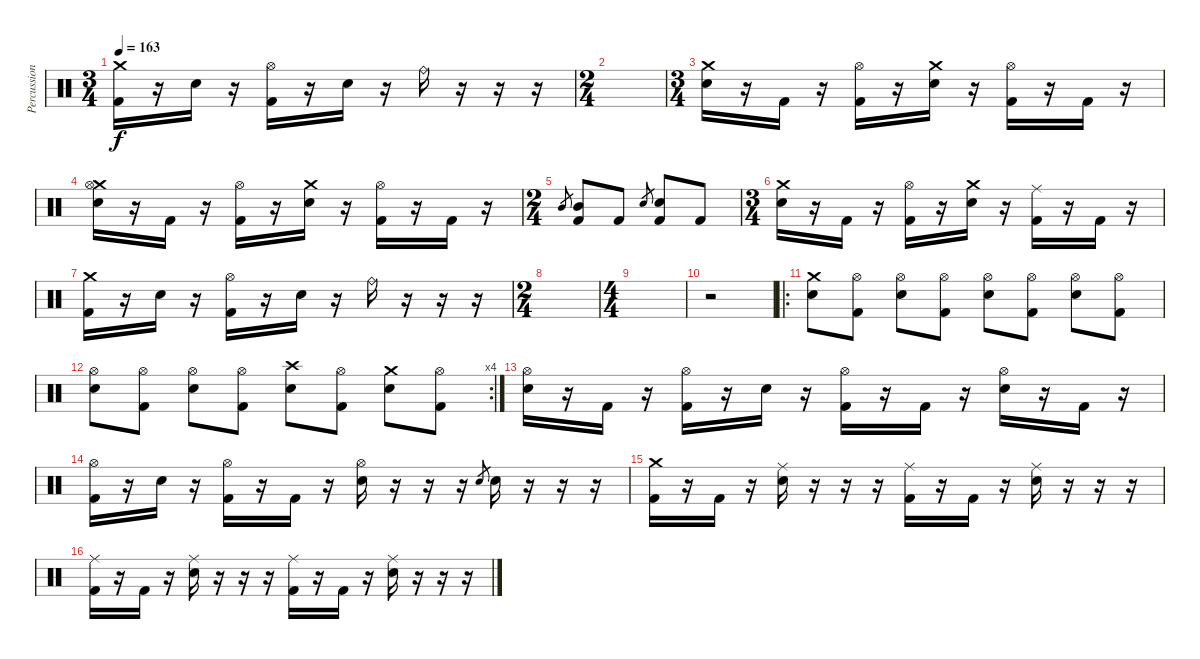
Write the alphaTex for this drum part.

\track ("Percussion" "Percussion") {instrument percussion}
\staff {score}
\articulation defaults
\ts (3 4)
\tempo 163
\clef neutral
\ks c
("Crash medium (hit)" "Kick (hit) 2").16{dy f} r.16 "Snare (hit) 2".16 r.16 ("Hi-Hat (open)" "Kick (hit) 2").16 r.16 "Snare (hit) 2".16 r.16 "Ride (bell)".16 r.16 r.16 r.16 |
\ts (2 4)
|
\ts (3 4)
("Crash medium (hit)" "Snare (hit) 2").16 r.16 "Kick (hit) 2".16 r.16 ("Hi-Hat (open)" "Kick (hit) 2").16 r.16 ("Crash medium (hit)" "Snare (hit) 2").16 r.16 ("Hi-Hat (open)" "Kick (hit) 2").16 r.16 "Kick (hit) 2".16 r.16 |
("Crash medium (hit)" "Hi-Hat (open)" "Snare (hit) 2").16 r.16 "Kick (hit) 2".16 r.16 ("Hi-Hat (open)" "Kick (hit) 2").16 r.16 ("Crash medium (hit)" "Snare (hit) 2").16 r.16 ("Hi-Hat (open)" "Kick (hit) 2").16 r.16 "Kick (hit) 2".16 r.16 |
\ts (2 4)
"Mid Tom (hit)".8{gr} ("Mid Tom (hit)" "Kick (hit) 2").8 "Kick (hit) 2".8 "Snare (hit) 2".8{gr} ("Snare (hit) 2" "Kick (hit) 2").8 "Kick (hit) 2".8 |
\ts (3 4)
("Crash medium (hit)" "Snare (hit) 2").16 r.16 "Kick (hit) 2".16 r.16 ("Hi-Hat (open)" "Kick (hit) 2").16 r.16 ("Crash medium (hit)" "Snare (hit) 2").16 r.16 ("Ride (middle)" "Kick (hit) 2").16 r.16 "Kick (hit) 2".16 r.16 |
("Crash medium (hit)" "Kick (hit) 2").16 r.16 "Snare (hit) 2".16 r.16 ("Hi-Hat (open)" "Kick (hit) 2").16 r.16 "Snare (hit) 2".16 r.16 "Ride (bell)".16 r.16 r.16 r.16 |
\ts (2 4)
|
\ts (4 4)
|
r.2{volume 13} |
\ro
("Crash medium (hit)" "Snare (hit) 2").8 ("Hi-Hat (open)" "Kick (hit) 2").8 ("Hi-Hat (open)" "Snare (hit) 2").8 ("Hi-Hat (open)" "Kick (hit) 2").8 ("Hi-Hat (open)" "Snare (hit) 2").8 ("Hi-Hat (open)" "Kick (hit) 2").8 ("Hi-Hat (open)" "Snare (hit) 2").8 ("Hi-Hat (open)" "Kick (hit) 2").8 |
\rc 4
("Hi-Hat (open)" "Snare (hit) 2").8 ("Hi-Hat (open)" "Kick (hit) 2").8 ("Hi-Hat (open)" "Snare (hit) 2").8 ("Hi-Hat (open)" "Kick (hit) 2").8 ("Crash high (hit)" "Snare (hit) 2").8 ("Hi-Hat (open)" "Kick (hit) 2").8 ("Crash medium (hit)" "Snare (hit) 2").8 ("Hi-Hat (open)" "Kick (hit) 2").8 |
("Hi-Hat (open)" "Snare (hit) 2").16 r.16 "Kick (hit) 2".16 r.16 ("Hi-Hat (open)" "Kick (hit) 2").16 r.16 "Snare (hit) 2".16 r.16 ("Hi-Hat (open)" "Kick (hit) 2").16 r.16 "Kick (hit) 2".16 r.16 ("Hi-Hat (open)" "Snare (hit) 2").16 r.16 "Kick (hit) 2".16 r.16 |
("Hi-Hat (open)" "Kick (hit) 2").16 r.16 "Snare (hit) 2".16 r.16 ("Hi-Hat (open)" "Kick (hit) 2").16 r.16 "Kick (hit) 2".16 r.16 ("Hi-Hat (open)" "Snare (hit) 2").16 r.16 r.16 r.16 "Snare (hit) 2".8{gr} "Snare (hit) 2".16 r.16 r.16 r.16 |
("Crash medium (hit)" "Kick (hit) 2").16 r.16 "Kick (hit) 2".16 r.16 ("Ride (middle)" "Snare (hit) 2").16 r.16 r.16 r.16 ("Ride (middle)" "Kick (hit) 2").16 r.16 "Kick (hit) 2".16 r.16 ("Ride (middle)" "Snare (hit) 2").16 r.16 r.16 r.16 |
("Ride (middle)" "Kick (hit) 2").16 r.16 "Kick (hit) 2".16 r.16 ("Ride (middle)" "Snare (hit) 2").16 r.16 r.16 r.16 ("Ride (middle)" "Kick (hit) 2").16 r.16 "Kick (hit) 2".16 r.16 ("Ride (middle)" "Snare (hit) 2").16 r.16 r.16 r.16
